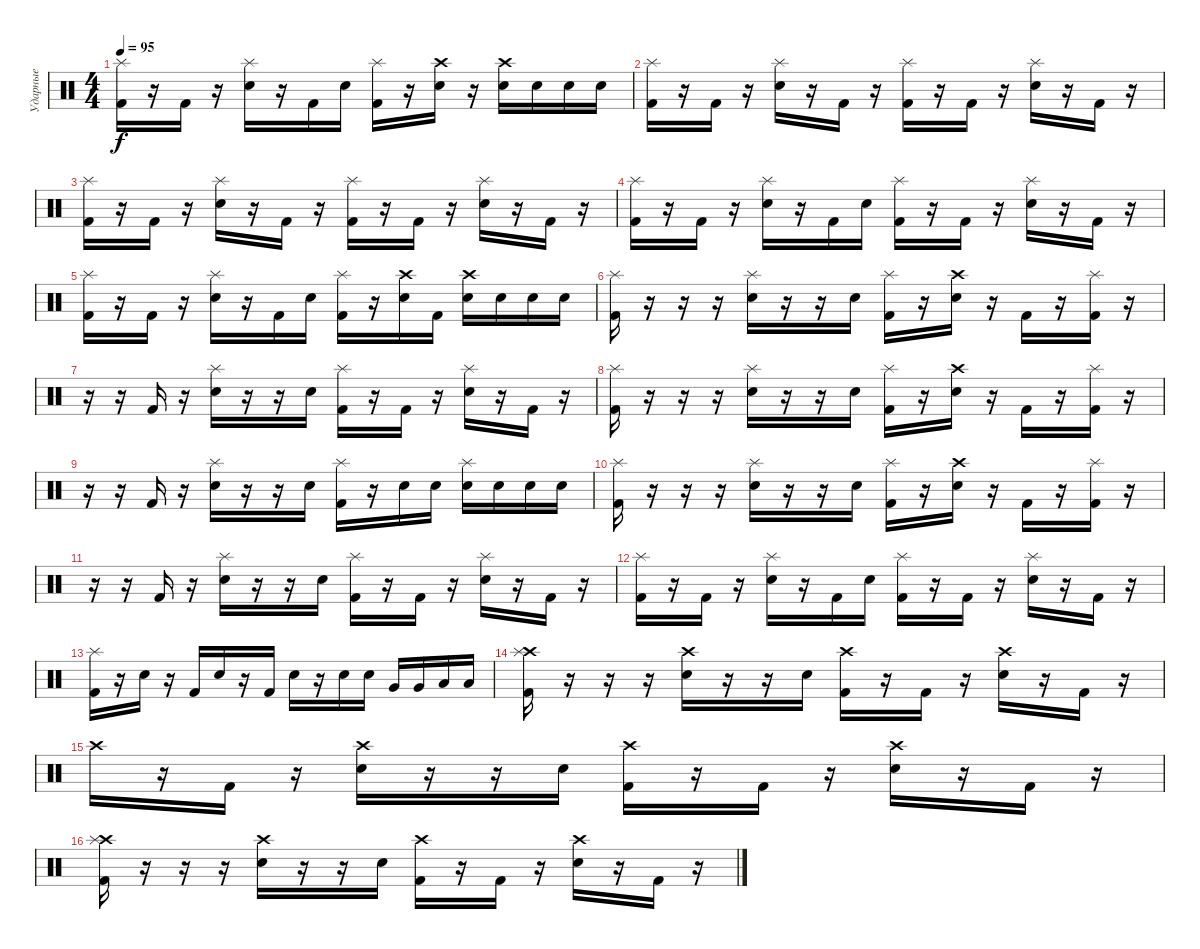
\track ("Ударные" "Ударные") {instrument percussion}
\staff {score}
\articulation defaults
\ts (4 4)
\tempo 95
\clef neutral
\ks c
("Splash (hit)" "Kick (hit) 2").16{dy f} r.16 "Kick (hit) 2".16 r.16 ("Splash (hit)" "Snare (hit) 2").16 r.16 "Kick (hit) 2".16 "Snare (hit) 2".16 ("Splash (hit)" "Kick (hit) 2").16 r.16 ("Crash high (hit)" "Snare (hit) 2").16 r.16 ("Crash high (hit)" "Snare (hit) 2").16 "Snare (hit) 2".16 "Snare (hit) 2".16 "Snare (hit) 2".16 |
("Splash (hit)" "Kick (hit) 2").16 r.16 "Kick (hit) 2".16 r.16 ("Splash (hit)" "Snare (hit) 2").16 r.16 "Kick (hit) 2".16 r.16 ("Splash (hit)" "Kick (hit) 2").16 r.16 "Kick (hit) 2".16 r.16 ("Splash (hit)" "Snare (hit) 2").16 r.16 "Kick (hit) 2".16 r.16 |
("Splash (hit)" "Kick (hit) 2").16 r.16 "Kick (hit) 2".16 r.16 ("Splash (hit)" "Snare (hit) 2").16 r.16 "Kick (hit) 2".16 r.16 ("Splash (hit)" "Kick (hit) 2").16 r.16 "Kick (hit) 2".16 r.16 ("Splash (hit)" "Snare (hit) 2").16 r.16 "Kick (hit) 2".16 r.16 |
("Splash (hit)" "Kick (hit) 2").16 r.16 "Kick (hit) 2".16 r.16 ("Splash (hit)" "Snare (hit) 2").16 r.16 "Kick (hit) 2".16 "Snare (hit) 2".16 ("Splash (hit)" "Kick (hit) 2").16 r.16 "Kick (hit) 2".16 r.16 ("Splash (hit)" "Snare (hit) 2").16 r.16 "Kick (hit) 2".16 r.16 |
("Splash (hit)" "Kick (hit) 2").16 r.16 "Kick (hit) 2".16 r.16 ("Splash (hit)" "Snare (hit) 2").16 r.16 "Kick (hit) 2".16 "Snare (hit) 2".16 ("Splash (hit)" "Kick (hit) 2").16 r.16 ("Crash high (hit)" "Snare (hit) 2").16 "Kick (hit) 2".16 ("Crash high (hit)" "Snare (hit) 2").16 "Snare (hit) 2".16 "Snare (hit) 2".16 "Snare (hit) 2".16 |
("Splash (hit)" "Kick (hit) 2").16 r.16 r.16 r.16 ("Splash (hit)" "Snare (hit) 2").16 r.16 r.16 "Snare (hit) 2".16 ("Splash (hit)" "Kick (hit) 2").16 r.16 ("Crash high (hit)" "Snare (hit) 2").16 r.16 "Kick (hit) 2".16 r.16 ("Splash (hit)" "Kick (hit) 2").16 r.16 |
r.16 r.16 "Kick (hit) 2".16 r.16 ("Splash (hit)" "Snare (hit) 2").16 r.16 r.16 "Snare (hit) 2".16 ("Splash (hit)" "Kick (hit) 2").16 r.16 "Kick (hit) 2".16 r.16 ("Splash (hit)" "Snare (hit) 2").16 r.16 "Kick (hit) 2".16 r.16 |
("Splash (hit)" "Kick (hit) 2").16 r.16 r.16 r.16 ("Splash (hit)" "Snare (hit) 2").16 r.16 r.16 "Snare (hit) 2".16 ("Splash (hit)" "Kick (hit) 2").16 r.16 ("Crash high (hit)" "Snare (hit) 2").16 r.16 "Kick (hit) 2".16 r.16 ("Splash (hit)" "Kick (hit) 2").16 r.16 |
r.16 r.16 "Kick (hit) 2".16 r.16 ("Splash (hit)" "Snare (hit) 2").16 r.16 r.16 "Snare (hit) 2".16 ("Splash (hit)" "Kick (hit) 2").16 r.16 "Snare (hit) 2".16 "Snare (hit) 2".16 ("Splash (hit)" "Snare (hit) 2").16 "Snare (hit) 2".16 "Snare (hit) 2".16 "Snare (hit) 2".16 |
("Splash (hit)" "Kick (hit) 2").16 r.16 r.16 r.16 ("Splash (hit)" "Snare (hit) 2").16 r.16 r.16 "Snare (hit) 2".16 ("Splash (hit)" "Kick (hit) 2").16 r.16 ("Crash high (hit)" "Snare (hit) 2").16 r.16 "Kick (hit) 2".16 r.16 ("Splash (hit)" "Kick (hit) 2").16 r.16 |
r.16 r.16 "Kick (hit) 2".16 r.16 ("Splash (hit)" "Snare (hit) 2").16 r.16 r.16 "Snare (hit) 2".16 ("Splash (hit)" "Kick (hit) 2").16 r.16 "Kick (hit) 2".16 r.16 ("Splash (hit)" "Snare (hit) 2").16 r.16 "Kick (hit) 2".16 r.16 |
("Splash (hit)" "Kick (hit) 2").16 r.16 "Kick (hit) 2".16 r.16 ("Splash (hit)" "Snare (hit) 2").16 r.16 "Kick (hit) 2".16 "Snare (hit) 2".16 ("Splash (hit)" "Kick (hit) 2").16 r.16 "Kick (hit) 2".16 r.16 ("Splash (hit)" "Snare (hit) 2").16 r.16 "Kick (hit) 2".16 r.16 |
("Splash (hit)" "Kick (hit) 2").16 r.16 "Snare (hit) 2".16 r.16 "Kick (hit) 2".16 "Snare (hit) 2".16 r.16 "Kick (hit) 2".16 "Snare (hit) 2".16 r.16 "Snare (hit) 2".16 "Snare (hit) 2".16 "Very Low Tom (hit)".16 "Very Low Tom (hit)".16 "Low Floor Tom (hit)".16 "Low Floor Tom (hit)".16 |
("Crash high (hit)" "Splash (hit)" "Kick (hit) 2").16 r.16 r.16 r.16 ("Crash high (hit)" "Snare (hit) 2").16 r.16 r.16 "Snare (hit) 2".16 ("Crash high (hit)" "Kick (hit) 2").16 r.16 "Kick (hit) 2".16 r.16 ("Crash high (hit)" "Snare (hit) 2").16 r.16 "Kick (hit) 2".16 r.16 |
"Crash high (hit)".16 r.16 "Kick (hit) 2".16 r.16 ("Crash high (hit)" "Snare (hit) 2").16 r.16 r.16 "Snare (hit) 2".16 ("Crash high (hit)" "Kick (hit) 2").16 r.16 "Kick (hit) 2".16 r.16 ("Crash high (hit)" "Snare (hit) 2").16 r.16 "Kick (hit) 2".16 r.16 |
("Crash high (hit)" "Splash (hit)" "Kick (hit) 2").16 r.16 r.16 r.16 ("Crash high (hit)" "Snare (hit) 2").16 r.16 r.16 "Snare (hit) 2".16 ("Crash high (hit)" "Kick (hit) 2").16 r.16 "Kick (hit) 2".16 r.16 ("Crash high (hit)" "Snare (hit) 2").16 r.16 "Kick (hit) 2".16 r.16
